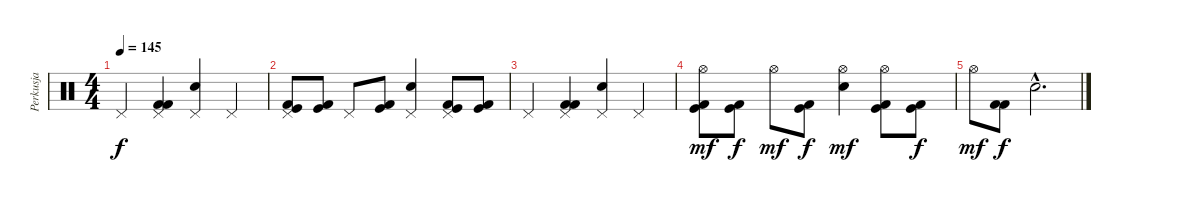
\track ("Perkusja" "Perkusja") {instrument percussion}
\staff {score}
\articulation defaults
\ts (4 4)
\tempo 145
\clef neutral
\ks c "Pedal Hi-Hat (hit)".4{dy f}
("Kick (hit) 2" "Kick (hit) 2" "Pedal Hi-Hat (hit)").4 ("Pedal Hi-Hat (hit)" "Snare (hit) 2").4 "Pedal Hi-Hat (hit)".4 |
("Pedal Hi-Hat (hit)" "Kick (hit) 2" "Kick (hit)").8 ("Kick (hit) 2" "Kick (hit)").8 "Pedal Hi-Hat (hit)".8 ("Kick (hit) 2" "Kick (hit)").8 ("Pedal Hi-Hat (hit)" "Snare (hit) 2").4 ("Kick (hit) 2" "Kick (hit)" "Pedal Hi-Hat (hit)").8 ("Kick (hit) 2" "Kick (hit)").8 |
"Pedal Hi-Hat (hit)".4 ("Kick (hit) 2" "Kick (hit) 2" "Pedal Hi-Hat (hit)").4 ("Pedal Hi-Hat (hit)" "Snare (hit) 2").4 "Pedal Hi-Hat (hit)".4 |
("Hi-Hat (open)" "Kick (hit) 2" "Kick (hit)").8{dy mf} ("Kick (hit) 2" "Kick (hit)").8{dy f} "Hi-Hat (open)".8{dy mf} ("Kick (hit) 2" "Kick (hit)").8{dy f} ("Hi-Hat (open)" "Snare (hit) 2").4{dy mf} ("Kick (hit) 2" "Kick (hit)" "Hi-Hat (open)").8 ("Kick (hit) 2" "Kick (hit)").8{dy f} |
"Hi-Hat (open)".8{dy mf} ("Kick (hit) 2" "Kick (hit) 2").8{dy f} "Snare (hit) 2"{hac}.2{d}
